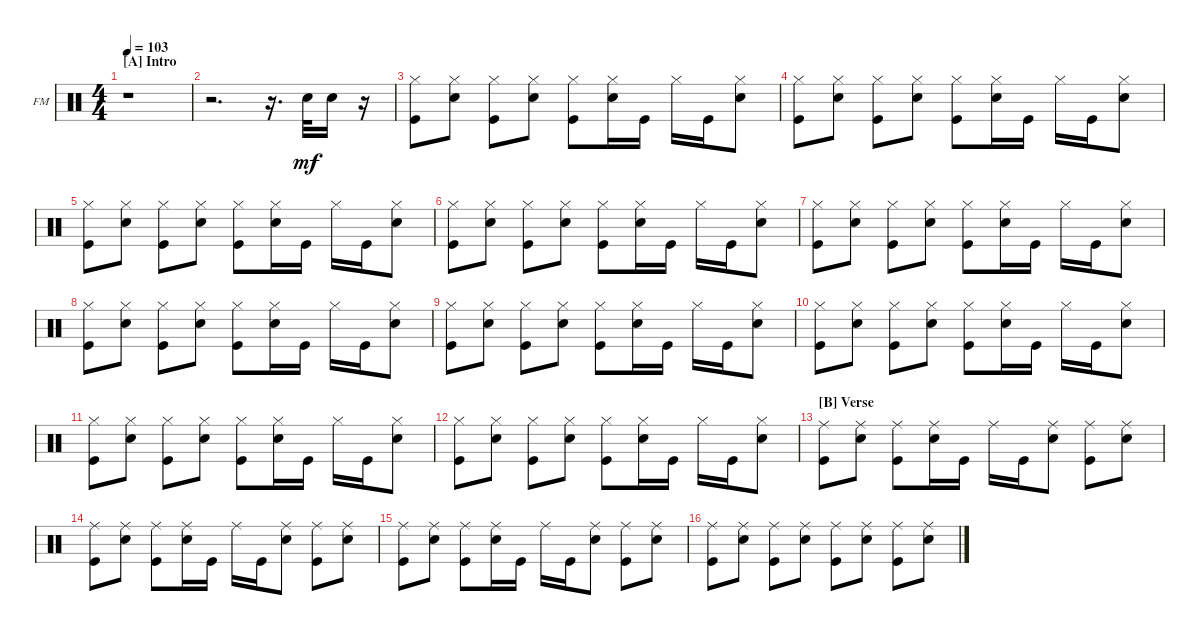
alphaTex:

\defaultSystemsLayout 4
\bracketExtendMode groupsimilarinstruments
\firstSystemTrackNameOrientation horizontal
\otherSystemsTrackNameOrientation horizontal
\track ("Fabrizio Moretti" "FM") {instrument percussion}
\staff {score}
\articulation defaults
\ts (4 4)
\section ("A" "Intro")
\tempo 103
\clef neutral
\ks c
r.1{dy mf} |
r.2{d} r.16{d} "Snare (hit) 2".32 "Snare (hit) 2".16 r.16 |
("Kick (hit)" "Hi-Hat (closed)").8 ("Snare (hit) 2" "Hi-Hat (closed)").8 ("Kick (hit)" "Hi-Hat (closed)").8 ("Snare (hit) 2" "Hi-Hat (closed)").8 ("Kick (hit)" "Hi-Hat (closed)").8 ("Snare (hit) 2" "Hi-Hat (closed)").16 "Kick (hit)".16 "Hi-Hat (closed)".16 "Kick (hit)".16 ("Snare (hit) 2" "Hi-Hat (closed)").8 |
("Kick (hit)" "Hi-Hat (closed)").8 ("Snare (hit) 2" "Hi-Hat (closed)").8 ("Kick (hit)" "Hi-Hat (closed)").8 ("Snare (hit) 2" "Hi-Hat (closed)").8 ("Kick (hit)" "Hi-Hat (closed)").8 ("Snare (hit) 2" "Hi-Hat (closed)").16 "Kick (hit)".16 "Hi-Hat (closed)".16 "Kick (hit)".16 ("Snare (hit) 2" "Hi-Hat (closed)").8 |
("Kick (hit)" "Hi-Hat (closed)").8 ("Snare (hit) 2" "Hi-Hat (closed)").8 ("Kick (hit)" "Hi-Hat (closed)").8 ("Snare (hit) 2" "Hi-Hat (closed)").8 ("Kick (hit)" "Hi-Hat (closed)").8 ("Snare (hit) 2" "Hi-Hat (closed)").16 "Kick (hit)".16 "Hi-Hat (closed)".16 "Kick (hit)".16 ("Snare (hit) 2" "Hi-Hat (closed)").8 |
("Kick (hit)" "Hi-Hat (closed)").8 ("Snare (hit) 2" "Hi-Hat (closed)").8 ("Kick (hit)" "Hi-Hat (closed)").8 ("Snare (hit) 2" "Hi-Hat (closed)").8 ("Kick (hit)" "Hi-Hat (closed)").8 ("Snare (hit) 2" "Hi-Hat (closed)").16 "Kick (hit)".16 "Hi-Hat (closed)".16 "Kick (hit)".16 ("Snare (hit) 2" "Hi-Hat (closed)").8 |
("Kick (hit)" "Hi-Hat (closed)").8 ("Snare (hit) 2" "Hi-Hat (closed)").8 ("Kick (hit)" "Hi-Hat (closed)").8 ("Snare (hit) 2" "Hi-Hat (closed)").8 ("Kick (hit)" "Hi-Hat (closed)").8 ("Snare (hit) 2" "Hi-Hat (closed)").16 "Kick (hit)".16 "Hi-Hat (closed)".16 "Kick (hit)".16 ("Snare (hit) 2" "Hi-Hat (closed)").8 |
("Kick (hit)" "Hi-Hat (closed)").8 ("Snare (hit) 2" "Hi-Hat (closed)").8 ("Kick (hit)" "Hi-Hat (closed)").8 ("Snare (hit) 2" "Hi-Hat (closed)").8 ("Kick (hit)" "Hi-Hat (closed)").8 ("Snare (hit) 2" "Hi-Hat (closed)").16 "Kick (hit)".16 "Hi-Hat (closed)".16 "Kick (hit)".16 ("Snare (hit) 2" "Hi-Hat (closed)").8 |
("Kick (hit)" "Hi-Hat (closed)").8 ("Snare (hit) 2" "Hi-Hat (closed)").8 ("Kick (hit)" "Hi-Hat (closed)").8 ("Snare (hit) 2" "Hi-Hat (closed)").8 ("Kick (hit)" "Hi-Hat (closed)").8 ("Snare (hit) 2" "Hi-Hat (closed)").16 "Kick (hit)".16 "Hi-Hat (closed)".16 "Kick (hit)".16 ("Snare (hit) 2" "Hi-Hat (closed)").8 |
("Kick (hit)" "Hi-Hat (closed)").8 ("Snare (hit) 2" "Hi-Hat (closed)").8 ("Kick (hit)" "Hi-Hat (closed)").8 ("Snare (hit) 2" "Hi-Hat (closed)").8 ("Kick (hit)" "Hi-Hat (closed)").8 ("Snare (hit) 2" "Hi-Hat (closed)").16 "Kick (hit)".16 "Hi-Hat (closed)".16 "Kick (hit)".16 ("Snare (hit) 2" "Hi-Hat (closed)").8 |
("Kick (hit)" "Hi-Hat (closed)").8 ("Snare (hit) 2" "Hi-Hat (closed)").8 ("Kick (hit)" "Hi-Hat (closed)").8 ("Snare (hit) 2" "Hi-Hat (closed)").8 ("Kick (hit)" "Hi-Hat (closed)").8 ("Snare (hit) 2" "Hi-Hat (closed)").16 "Kick (hit)".16 "Hi-Hat (closed)".16 "Kick (hit)".16 ("Snare (hit) 2" "Hi-Hat (closed)").8 |
("Kick (hit)" "Hi-Hat (closed)").8 ("Snare (hit) 2" "Hi-Hat (closed)").8 ("Kick (hit)" "Hi-Hat (closed)").8 ("Snare (hit) 2" "Hi-Hat (closed)").8 ("Kick (hit)" "Hi-Hat (closed)").8 ("Snare (hit) 2" "Hi-Hat (closed)").16 "Kick (hit)".16 "Hi-Hat (closed)".16 "Kick (hit)".16 ("Snare (hit) 2" "Hi-Hat (closed)").8 |
\section ("B" "Verse")
("Kick (hit)" "Ride (middle)").8 ("Snare (hit) 2" "Ride (middle)").8 ("Kick (hit)" "Ride (middle)").8 ("Snare (hit) 2" "Ride (middle)").16 "Kick (hit)".16 "Ride (middle)".16 "Kick (hit)".16 ("Snare (hit) 2" "Ride (middle)").8 ("Kick (hit)" "Ride (middle)").8 ("Snare (hit) 2" "Ride (middle)").8 |
("Kick (hit)" "Ride (middle)").8 ("Snare (hit) 2" "Ride (middle)").8 ("Kick (hit)" "Ride (middle)").8 ("Snare (hit) 2" "Ride (middle)").16 "Kick (hit)".16 "Ride (middle)".16 "Kick (hit)".16 ("Snare (hit) 2" "Ride (middle)").8 ("Kick (hit)" "Ride (middle)").8 ("Snare (hit) 2" "Ride (middle)").8 |
("Kick (hit)" "Ride (middle)").8 ("Snare (hit) 2" "Ride (middle)").8 ("Kick (hit)" "Ride (middle)").8 ("Snare (hit) 2" "Ride (middle)").16 "Kick (hit)".16 "Ride (middle)".16 "Kick (hit)".16 ("Snare (hit) 2" "Ride (middle)").8 ("Kick (hit)" "Ride (middle)").8 ("Snare (hit) 2" "Ride (middle)").8 |
("Kick (hit)" "Ride (middle)").8 ("Snare (hit) 2" "Ride (middle)").8 ("Kick (hit)" "Ride (middle)").8 ("Snare (hit) 2" "Ride (middle)").8 ("Kick (hit)" "Ride (middle)").8 ("Snare (hit) 2" "Ride (middle)").8 ("Kick (hit)" "Ride (middle)").8 ("Snare (hit) 2" "Ride (middle)").8
